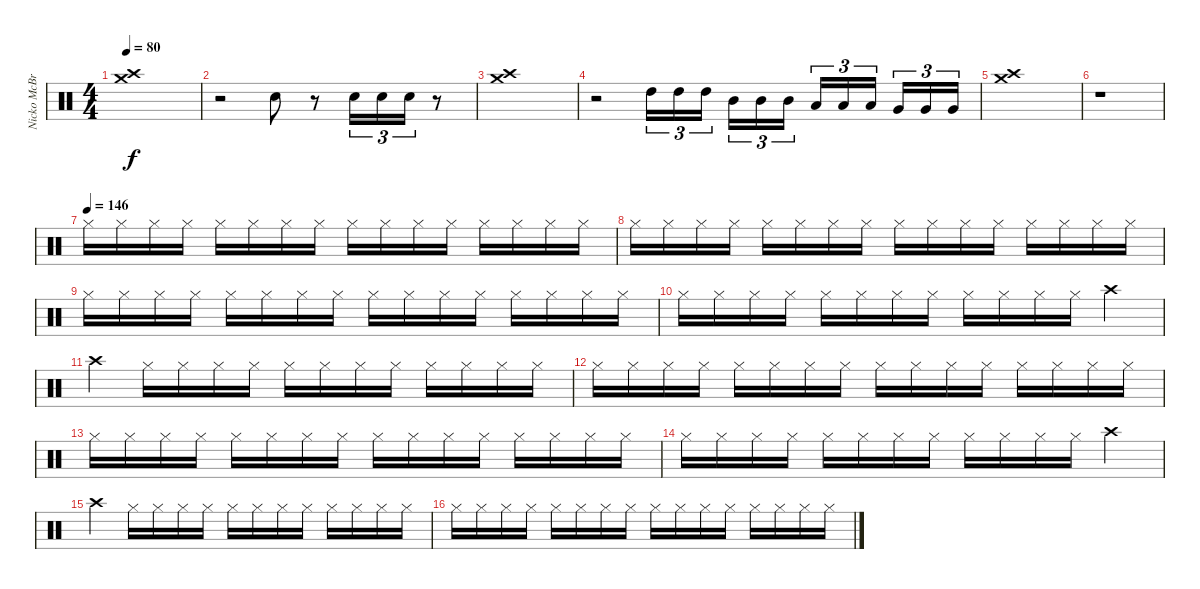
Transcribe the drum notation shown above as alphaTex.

\track ("Nicko McBrain" "Nicko McBr") {instrument percussion}
\staff {score}
\articulation defaults
\ts (4 4)
\tempo 80
\clef neutral
\ks c
("Crash high (hit)" "Crash medium (hit)").1{dy f} |
r.2 "Snare (hit) 2".8 r.8 "Snare (hit) 2".16{tu (3 2)} "Snare (hit) 2".16{tu (3 2)} "Snare (hit) 2".16{tu (3 2)} r.8 |
("Crash high (hit)" "Crash medium (hit)").1 |
r.2 "High Tom (hit)".16{tu (3 2)} "High Tom (hit)".16{tu (3 2)} "High Tom (hit)".16{tu (3 2) beam splitsecondary} "Mid Tom (hit)".16{tu (3 2)} "Mid Tom (hit)".16{tu (3 2)} "Mid Tom (hit)".16{tu (3 2)} "Low Tom (hit)".16{tu (3 2)} "Low Tom (hit)".16{tu (3 2)} "Low Tom (hit)".16{tu (3 2) beam splitsecondary} "Very Low Tom (hit)".16{tu (3 2)} "Very Low Tom (hit)".16{tu (3 2)} "Very Low Tom (hit)".16{tu (3 2)} |
("Crash high (hit)" "Crash medium (hit)").1 |
r.1 |
\tempo (146)
"Hi-Hat (closed)".16 "Hi-Hat (closed)".16 "Hi-Hat (closed)".16 "Hi-Hat (closed)".16 "Hi-Hat (closed)".16 "Hi-Hat (closed)".16 "Hi-Hat (closed)".16 "Hi-Hat (closed)".16 "Hi-Hat (closed)".16 "Hi-Hat (closed)".16 "Hi-Hat (closed)".16 "Hi-Hat (closed)".16 "Hi-Hat (closed)".16 "Hi-Hat (closed)".16 "Hi-Hat (closed)".16 "Hi-Hat (closed)".16 |
"Hi-Hat (closed)".16 "Hi-Hat (closed)".16 "Hi-Hat (closed)".16 "Hi-Hat (closed)".16 "Hi-Hat (closed)".16 "Hi-Hat (closed)".16 "Hi-Hat (closed)".16 "Hi-Hat (closed)".16 "Hi-Hat (closed)".16 "Hi-Hat (closed)".16 "Hi-Hat (closed)".16 "Hi-Hat (closed)".16 "Hi-Hat (closed)".16 "Hi-Hat (closed)".16 "Hi-Hat (closed)".16 "Hi-Hat (closed)".16 |
"Hi-Hat (closed)".16 "Hi-Hat (closed)".16 "Hi-Hat (closed)".16 "Hi-Hat (closed)".16 "Hi-Hat (closed)".16 "Hi-Hat (closed)".16 "Hi-Hat (closed)".16 "Hi-Hat (closed)".16 "Hi-Hat (closed)".16 "Hi-Hat (closed)".16 "Hi-Hat (closed)".16 "Hi-Hat (closed)".16 "Hi-Hat (closed)".16 "Hi-Hat (closed)".16 "Hi-Hat (closed)".16 "Hi-Hat (closed)".16 |
"Hi-Hat (closed)".16 "Hi-Hat (closed)".16 "Hi-Hat (closed)".16 "Hi-Hat (closed)".16 "Hi-Hat (closed)".16 "Hi-Hat (closed)".16 "Hi-Hat (closed)".16 "Hi-Hat (closed)".16 "Hi-Hat (closed)".16 "Hi-Hat (closed)".16 "Hi-Hat (closed)".16 "Hi-Hat (closed)".16 "Crash high (hit)".4 |
"Crash high (hit)".4 "Hi-Hat (closed)".16 "Hi-Hat (closed)".16 "Hi-Hat (closed)".16 "Hi-Hat (closed)".16 "Hi-Hat (closed)".16 "Hi-Hat (closed)".16 "Hi-Hat (closed)".16 "Hi-Hat (closed)".16 "Hi-Hat (closed)".16 "Hi-Hat (closed)".16 "Hi-Hat (closed)".16 "Hi-Hat (closed)".16 |
"Hi-Hat (closed)".16 "Hi-Hat (closed)".16 "Hi-Hat (closed)".16 "Hi-Hat (closed)".16 "Hi-Hat (closed)".16 "Hi-Hat (closed)".16 "Hi-Hat (closed)".16 "Hi-Hat (closed)".16 "Hi-Hat (closed)".16 "Hi-Hat (closed)".16 "Hi-Hat (closed)".16 "Hi-Hat (closed)".16 "Hi-Hat (closed)".16 "Hi-Hat (closed)".16 "Hi-Hat (closed)".16 "Hi-Hat (closed)".16 |
"Hi-Hat (closed)".16 "Hi-Hat (closed)".16 "Hi-Hat (closed)".16 "Hi-Hat (closed)".16 "Hi-Hat (closed)".16 "Hi-Hat (closed)".16 "Hi-Hat (closed)".16 "Hi-Hat (closed)".16 "Hi-Hat (closed)".16 "Hi-Hat (closed)".16 "Hi-Hat (closed)".16 "Hi-Hat (closed)".16 "Hi-Hat (closed)".16 "Hi-Hat (closed)".16 "Hi-Hat (closed)".16 "Hi-Hat (closed)".16 |
"Hi-Hat (closed)".16 "Hi-Hat (closed)".16 "Hi-Hat (closed)".16 "Hi-Hat (closed)".16 "Hi-Hat (closed)".16 "Hi-Hat (closed)".16 "Hi-Hat (closed)".16 "Hi-Hat (closed)".16 "Hi-Hat (closed)".16 "Hi-Hat (closed)".16 "Hi-Hat (closed)".16 "Hi-Hat (closed)".16 "Crash high (hit)".4 |
"Crash high (hit)".4 "Hi-Hat (closed)".16 "Hi-Hat (closed)".16 "Hi-Hat (closed)".16 "Hi-Hat (closed)".16 "Hi-Hat (closed)".16 "Hi-Hat (closed)".16 "Hi-Hat (closed)".16 "Hi-Hat (closed)".16 "Hi-Hat (closed)".16 "Hi-Hat (closed)".16 "Hi-Hat (closed)".16 "Hi-Hat (closed)".16 |
"Hi-Hat (closed)".16 "Hi-Hat (closed)".16 "Hi-Hat (closed)".16 "Hi-Hat (closed)".16 "Hi-Hat (closed)".16 "Hi-Hat (closed)".16 "Hi-Hat (closed)".16 "Hi-Hat (closed)".16 "Hi-Hat (closed)".16 "Hi-Hat (closed)".16 "Hi-Hat (closed)".16 "Hi-Hat (closed)".16 "Hi-Hat (closed)".16 "Hi-Hat (closed)".16 "Hi-Hat (closed)".16 "Hi-Hat (closed)".16
